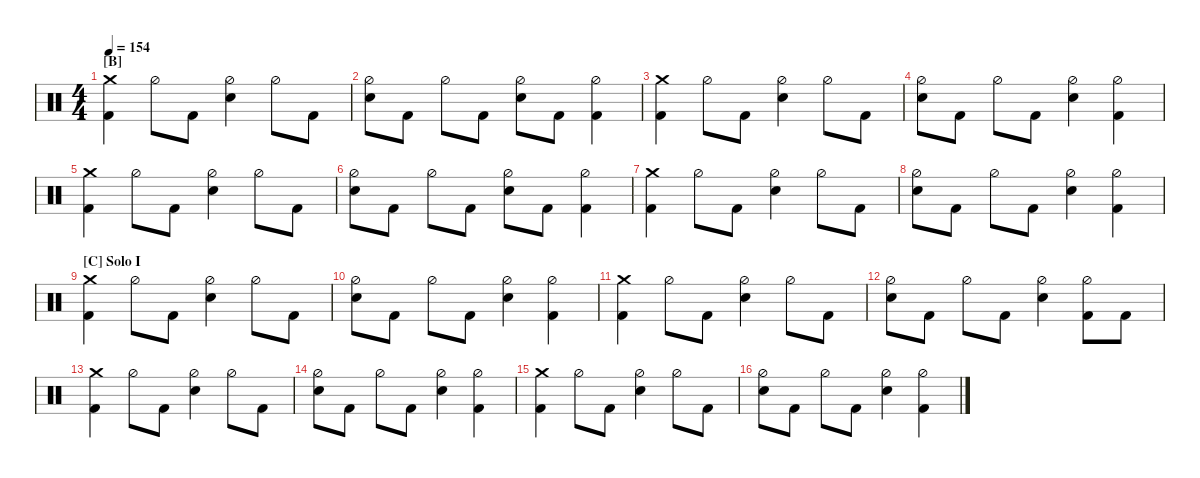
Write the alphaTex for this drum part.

\defaultSystemsLayout 4
\hideDynamics
\bracketExtendMode nobrackets
\singleTrackTrackNamePolicy hidden
\multiTrackTrackNamePolicy hidden
\firstSystemTrackNameMode fullname
\firstSystemTrackNameOrientation horizontal
\otherSystemsTrackNameOrientation horizontal
\track ("Drum" "Drums") {instrument percussion}
\staff {score}
\articulation defaults
\ts (4 4)
\section ("B" "")
\scale
0.194444
\tempo 154
\accidentals auto
\clef neutral
\ottava regular
\simile none
\scale
0.245614
\ks c
("Kick (hit) 2" "Crash medium (hit)").4{dy f beam Down} "Hi-Hat (half)".8{beam Down} "Kick (hit) 2".8{beam Down} ("Snare (hit) 2" "Hi-Hat (half)").4{beam Down} "Hi-Hat (half)".8{beam Down} "Kick (hit) 2".8{beam Down} |
\scale
0.305556
\scale
0.263158 ("Snare (hit) 2" "Hi-Hat (half)").8{beam Down} "Kick (hit) 2".8{beam Down} "Hi-Hat (half)".8{beam Down} "Kick (hit) 2".8{beam Down} ("Snare (hit) 2" "Hi-Hat (half)").8{beam Down} "Kick (hit) 2".8{beam Down} ("Kick (hit) 2" "Hi-Hat (half)").4{beam Down} |
\scale
0.194444
\scale
0.245614 ("Kick (hit) 2" "Crash medium (hit)").4{beam Down} "Hi-Hat (half)".8{beam Down} "Kick (hit) 2".8{beam Down} ("Snare (hit) 2" "Hi-Hat (half)").4{beam Down} "Hi-Hat (half)".8{beam Down} "Kick (hit) 2".8{beam Down} |
\scale
0.305556
\scale
0.245614 ("Snare (hit) 2" "Hi-Hat (half)").8{beam Down} "Kick (hit) 2".8{beam Down} "Hi-Hat (half)".8{beam Down} "Kick (hit) 2".8{beam Down} ("Snare (hit) 2" "Hi-Hat (half)").4{beam Down} ("Kick (hit) 2" "Hi-Hat (half)").4{beam Down} |
\scale
0.21875
\scale
0.245614 ("Kick (hit) 2" "Crash medium (hit)").4{beam Down} "Hi-Hat (half)".8{beam Down} "Kick (hit) 2".8{beam Down} ("Snare (hit) 2" "Hi-Hat (half)").4{beam Down} "Hi-Hat (half)".8{beam Down} "Kick (hit) 2".8{beam Down} |
\scale
0.34375
\scale
0.263158 ("Snare (hit) 2" "Hi-Hat (half)").8{beam Down} "Kick (hit) 2".8{beam Down} "Hi-Hat (half)".8{beam Down} "Kick (hit) 2".8{beam Down} ("Snare (hit) 2" "Hi-Hat (half)").8{beam Down} "Kick (hit) 2".8{beam Down} ("Kick (hit) 2" "Hi-Hat (half)").4{beam Down} |
\scale
0.21875
\scale
0.245614 ("Kick (hit) 2" "Crash medium (hit)").4{beam Down} "Hi-Hat (half)".8{beam Down} "Kick (hit) 2".8{beam Down} ("Snare (hit) 2" "Hi-Hat (half)").4{beam Down} "Hi-Hat (half)".8{beam Down} "Kick (hit) 2".8{beam Down} |
\scale
0.21875
\scale
0.245614 ("Snare (hit) 2" "Hi-Hat (half)").8{beam Down} "Kick (hit) 2".8{beam Down} "Hi-Hat (half)".8{beam Down} "Kick (hit) 2".8{beam Down} ("Snare (hit) 2" "Hi-Hat (half)").4{beam Down} ("Kick (hit) 2" "Hi-Hat (half)").4{beam Down} |
\section ("C" "Solo I")
\scale
0.230769
\scale
0.245614 ("Kick (hit) 2" "Crash medium (hit)").4{beam Down} "Hi-Hat (half)".8{beam Down} "Kick (hit) 2".8{beam Down} ("Snare (hit) 2" "Hi-Hat (half)").4{beam Down} "Hi-Hat (half)".8{beam Down} "Kick (hit) 2".8{beam Down} |
\scale
0.215385
\scale
0.245614 ("Snare (hit) 2" "Hi-Hat (half)").8{beam Down} "Kick (hit) 2".8{beam Down} "Hi-Hat (half)".8{beam Down} "Kick (hit) 2".8{beam Down} ("Snare (hit) 2" "Hi-Hat (half)").4{beam Down} ("Kick (hit) 2" "Hi-Hat (half)").4{beam Down} |
\scale
0.215385
\scale
0.245614 ("Kick (hit) 2" "Crash medium (hit)").4{beam Down} "Hi-Hat (half)".8{beam Down} "Kick (hit) 2".8{beam Down} ("Snare (hit) 2" "Hi-Hat (half)").4{beam Down} "Hi-Hat (half)".8{beam Down} "Kick (hit) 2".8{beam Down} |
\scale
0.338462
\scale
0.263158 ("Snare (hit) 2" "Hi-Hat (half)").8{beam Down} "Kick (hit) 2".8{beam Down} "Hi-Hat (half)".8{beam Down} "Kick (hit) 2".8{beam Down} ("Snare (hit) 2" "Hi-Hat (half)").4{beam Down} ("Kick (hit) 2" "Hi-Hat (half)").8{beam Down} "Kick (hit) 2".8{beam Down} |
\scale
0.230769
\scale
0.25 ("Kick (hit) 2" "Crash medium (hit)").4{beam Down} "Hi-Hat (half)".8{beam Down} "Kick (hit) 2".8{beam Down} ("Snare (hit) 2" "Hi-Hat (half)").4{beam Down} "Hi-Hat (half)".8{beam Down} "Kick (hit) 2".8{beam Down} |
\scale
0.338462
\scale
0.25 ("Snare (hit) 2" "Hi-Hat (half)").8{beam Down} "Kick (hit) 2".8{beam Down} "Hi-Hat (half)".8{beam Down} "Kick (hit) 2".8{beam Down} ("Snare (hit) 2" "Hi-Hat (half)").4{beam Down} ("Kick (hit) 2" "Hi-Hat (half)").4{beam Down} |
\scale
0.215385
\scale
0.25 ("Kick (hit) 2" "Crash medium (hit)").4{beam Down} "Hi-Hat (half)".8{beam Down} "Kick (hit) 2".8{beam Down} ("Snare (hit) 2" "Hi-Hat (half)").4{beam Down} "Hi-Hat (half)".8{beam Down} "Kick (hit) 2".8{beam Down} |
\scale
0.215385
\scale
0.25 ("Snare (hit) 2" "Hi-Hat (half)").8{beam Down} "Kick (hit) 2".8{beam Down} "Hi-Hat (half)".8{beam Down} "Kick (hit) 2".8{beam Down} ("Snare (hit) 2" "Hi-Hat (half)").4{beam Down} ("Kick (hit) 2" "Hi-Hat (half)").4{beam Down}
